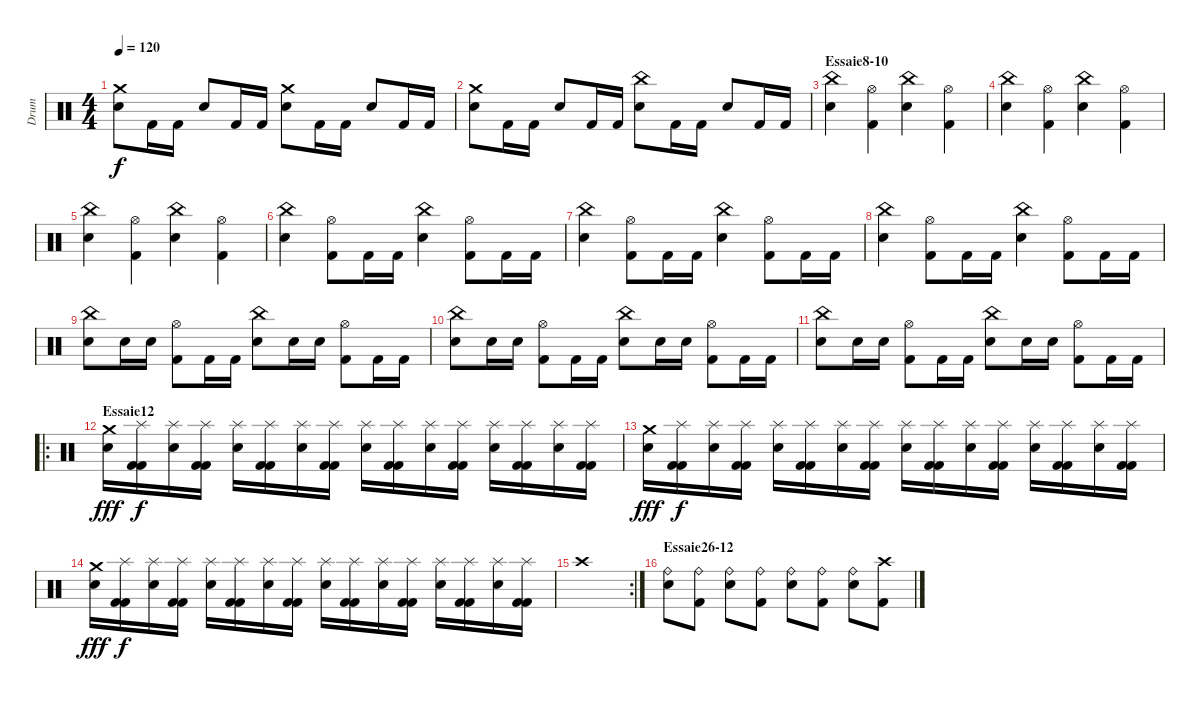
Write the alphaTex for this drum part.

\track ("Drum" "Drum") {instrument percussion}
\staff {score}
\articulation defaults
\ts (4 4)
\tempo 120
\clef neutral
\ks c
("Crash medium (hit)" "Snare (hit) 2").8{dy f} "Kick (hit) 2".16 "Kick (hit) 2".16 "Snare (hit) 2".8 "Kick (hit) 2".16 "Kick (hit) 2".16 ("Crash medium (hit)" "Snare (hit) 2").8 "Kick (hit) 2".16 "Kick (hit) 2".16 "Snare (hit) 2".8 "Kick (hit) 2".16 "Kick (hit) 2".16 |
("Crash medium (hit)" "Snare (hit) 2").8 "Kick (hit) 2".16 "Kick (hit) 2".16 "Snare (hit) 2".8 "Kick (hit) 2".16 "Kick (hit) 2".16 ("China (hit)" "Snare (hit) 2").8 "Kick (hit) 2".16 "Kick (hit) 2".16 "Snare (hit) 2".8 "Kick (hit) 2".16 "Kick (hit) 2".16 |
\section ("" "Essaie8-10")
("China (hit)" "Snare (hit) 2").4 ("Hi-Hat (open)" "Kick (hit) 2").4 ("China (hit)" "Snare (hit) 2").4 ("Hi-Hat (open)" "Kick (hit) 2").4 |
("China (hit)" "Snare (hit) 2").4 ("Hi-Hat (open)" "Kick (hit) 2").4 ("China (hit)" "Snare (hit) 2").4 ("Hi-Hat (open)" "Kick (hit) 2").4 |
("China (hit)" "Snare (hit) 2").4 ("Hi-Hat (open)" "Kick (hit) 2").4 ("China (hit)" "Snare (hit) 2").4 ("Hi-Hat (open)" "Kick (hit) 2").4 |
("China (hit)" "Snare (hit) 2").4 ("Hi-Hat (open)" "Kick (hit) 2").8 "Kick (hit) 2".16 "Kick (hit) 2".16 ("China (hit)" "Snare (hit) 2").4 ("Hi-Hat (open)" "Kick (hit) 2").8 "Kick (hit) 2".16 "Kick (hit) 2".16 |
("China (hit)" "Snare (hit) 2").4 ("Hi-Hat (open)" "Kick (hit) 2").8 "Kick (hit) 2".16 "Kick (hit) 2".16 ("China (hit)" "Snare (hit) 2").4 ("Hi-Hat (open)" "Kick (hit) 2").8 "Kick (hit) 2".16 "Kick (hit) 2".16 |
("China (hit)" "Snare (hit) 2").4 ("Hi-Hat (open)" "Kick (hit) 2").8 "Kick (hit) 2".16 "Kick (hit) 2".16 ("China (hit)" "Snare (hit) 2").4 ("Hi-Hat (open)" "Kick (hit) 2").8 "Kick (hit) 2".16 "Kick (hit) 2".16 |
("China (hit)" "Snare (hit) 2").8 "Snare (hit) 2".16 "Snare (hit) 2".16 ("Hi-Hat (open)" "Kick (hit) 2").8 "Kick (hit) 2".16 "Kick (hit) 2".16 ("China (hit)" "Snare (hit) 2").8 "Snare (hit) 2".16 "Snare (hit) 2".16 ("Hi-Hat (open)" "Kick (hit) 2").8 "Kick (hit) 2".16 "Kick (hit) 2".16 |
("China (hit)" "Snare (hit) 2").8 "Snare (hit) 2".16 "Snare (hit) 2".16 ("Hi-Hat (open)" "Kick (hit) 2").8 "Kick (hit) 2".16 "Kick (hit) 2".16 ("China (hit)" "Snare (hit) 2").8 "Snare (hit) 2".16 "Snare (hit) 2".16 ("Hi-Hat (open)" "Kick (hit) 2").8 "Kick (hit) 2".16 "Kick (hit) 2".16 |
("China (hit)" "Snare (hit) 2").8 "Snare (hit) 2".16 "Snare (hit) 2".16 ("Hi-Hat (open)" "Kick (hit) 2").8 "Kick (hit) 2".16 "Kick (hit) 2".16 ("China (hit)" "Snare (hit) 2").8 "Snare (hit) 2".16 "Snare (hit) 2".16 ("Hi-Hat (open)" "Kick (hit) 2").8 "Kick (hit) 2".16 "Kick (hit) 2".16 |
\ro
\section ("" "Essaie12")
("Crash medium (hit)" "Snare (hit) 2").16{dy fff} ("Kick (hit) 2" "Kick (hit) 2" "Splash (hit)").16{dy f} ("Splash (hit)" "Snare (hit) 2").16 ("Kick (hit) 2" "Kick (hit) 2" "Splash (hit)").16 ("Splash (hit)" "Snare (hit) 2").16 ("Kick (hit) 2" "Kick (hit) 2" "Splash (hit)").16 ("Splash (hit)" "Snare (hit) 2").16 ("Kick (hit) 2" "Kick (hit) 2" "Splash (hit)").16 ("Splash (hit)" "Snare (hit) 2").16 ("Kick (hit) 2" "Kick (hit) 2" "Splash (hit)").16 ("Splash (hit)" "Snare (hit) 2").16 ("Kick (hit) 2" "Kick (hit) 2" "Splash (hit)").16 ("Splash (hit)" "Snare (hit) 2").16 ("Kick (hit) 2" "Kick (hit) 2" "Splash (hit)").16 ("Splash (hit)" "Snare (hit) 2").16 ("Kick (hit) 2" "Kick (hit) 2" "Splash (hit)").16 |
("Crash medium (hit)" "Snare (hit) 2").16{dy fff} ("Kick (hit) 2" "Kick (hit) 2" "Splash (hit)").16{dy f} ("Splash (hit)" "Snare (hit) 2").16 ("Kick (hit) 2" "Kick (hit) 2" "Splash (hit)").16 ("Splash (hit)" "Snare (hit) 2").16 ("Kick (hit) 2" "Kick (hit) 2" "Splash (hit)").16 ("Splash (hit)" "Snare (hit) 2").16 ("Kick (hit) 2" "Kick (hit) 2" "Splash (hit)").16 ("Splash (hit)" "Snare (hit) 2").16 ("Kick (hit) 2" "Kick (hit) 2" "Splash (hit)").16 ("Splash (hit)" "Snare (hit) 2").16 ("Kick (hit) 2" "Kick (hit) 2" "Splash (hit)").16 ("Splash (hit)" "Snare (hit) 2").16 ("Kick (hit) 2" "Kick (hit) 2" "Splash (hit)").16 ("Splash (hit)" "Snare (hit) 2").16 ("Kick (hit) 2" "Kick (hit) 2" "Splash (hit)").16 |
("Crash medium (hit)" "Snare (hit) 2").16{dy fff} ("Kick (hit) 2" "Kick (hit) 2" "Splash (hit)").16{dy f} ("Splash (hit)" "Snare (hit) 2").16 ("Kick (hit) 2" "Kick (hit) 2" "Splash (hit)").16 ("Splash (hit)" "Snare (hit) 2").16 ("Kick (hit) 2" "Kick (hit) 2" "Splash (hit)").16 ("Splash (hit)" "Snare (hit) 2").16 ("Kick (hit) 2" "Kick (hit) 2" "Splash (hit)").16 ("Splash (hit)" "Snare (hit) 2").16 ("Kick (hit) 2" "Kick (hit) 2" "Splash (hit)").16 ("Splash (hit)" "Snare (hit) 2").16 ("Kick (hit) 2" "Kick (hit) 2" "Splash (hit)").16 ("Splash (hit)" "Snare (hit) 2").16 ("Kick (hit) 2" "Kick (hit) 2" "Splash (hit)").16 ("Splash (hit)" "Snare (hit) 2").16 ("Kick (hit) 2" "Kick (hit) 2" "Splash (hit)").16 |
\rc 2 "Crash high (hit)".1
|
\section ("" "Essaie26-12")
("Ride (bell)" "Snare (hit) 2").8 ("Ride (bell)" "Kick (hit) 2").8 ("Ride (bell)" "Snare (hit) 2").8 ("Ride (bell)" "Kick (hit) 2").8 ("Ride (bell)" "Snare (hit) 2").8 ("Ride (bell)" "Kick (hit) 2").8 ("Ride (bell)" "Snare (hit) 2").8 ("Crash high (hit)" "Kick (hit) 2").8
